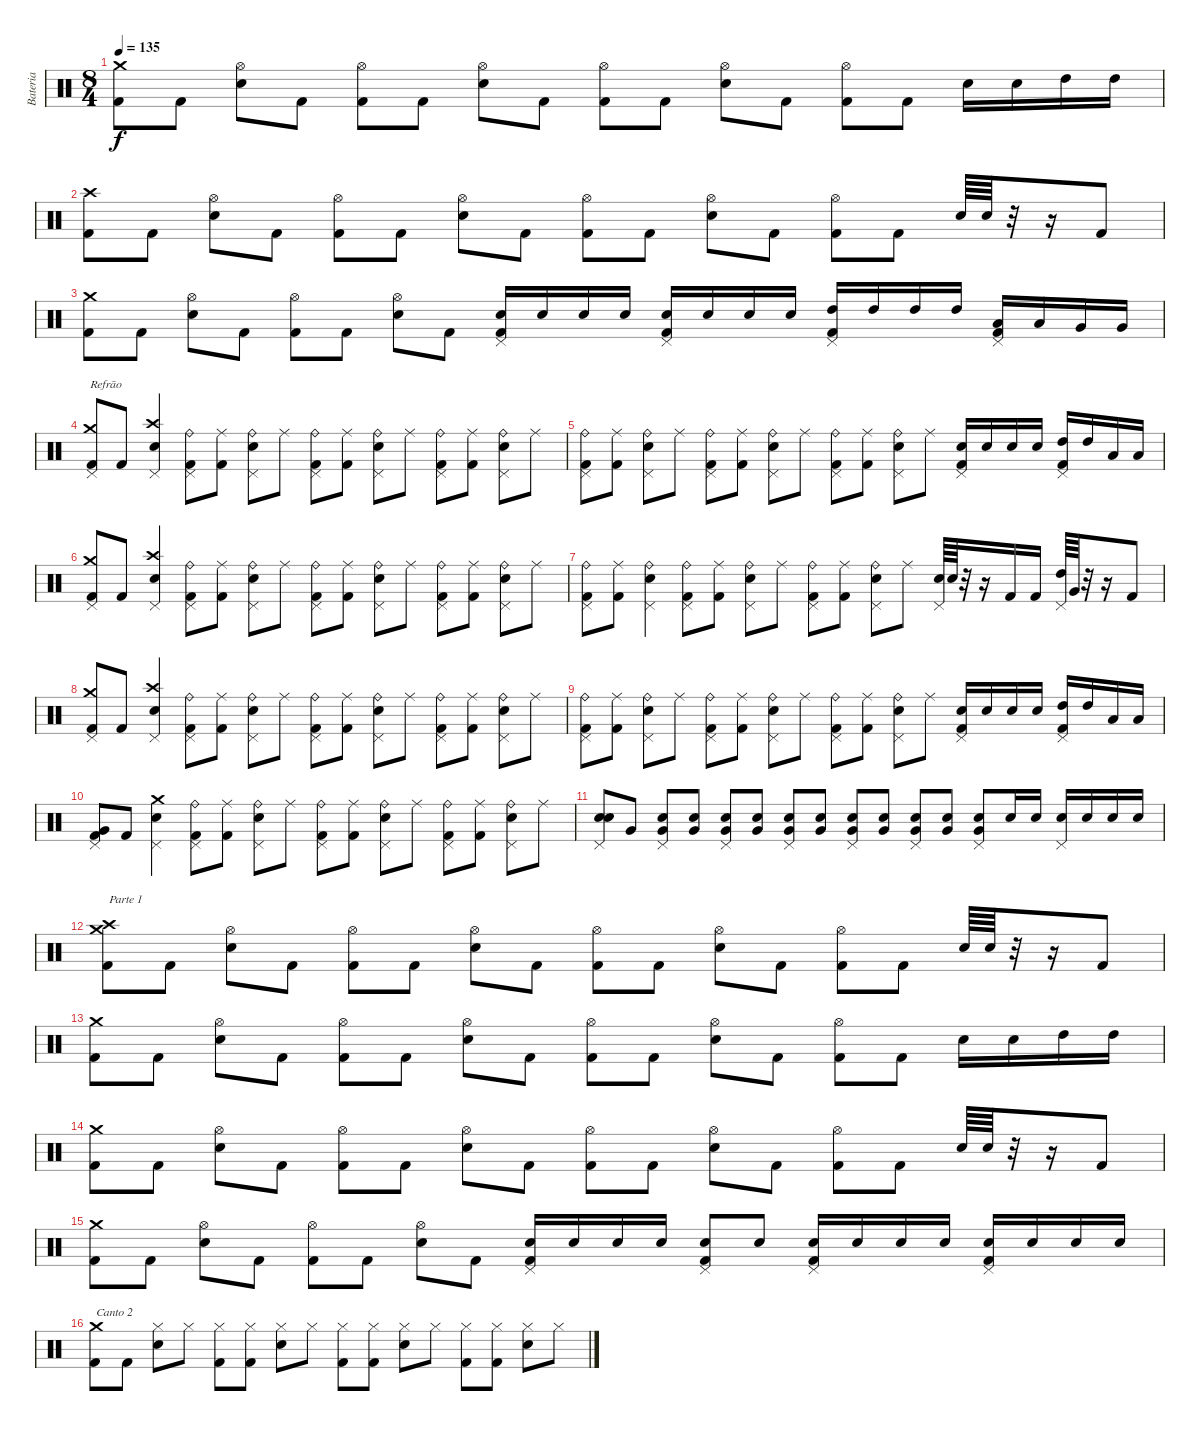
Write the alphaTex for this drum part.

\track ("Bateria" "Bateria") {instrument percussion}
\staff {score}
\articulation defaults
\ts (8 4)
\tempo 135
\clef neutral
\ks c
("Kick (hit) 2" "Crash medium (hit)").8{dy f} "Kick (hit) 2".8 ("Electric Snare (hit)" "Hi-Hat (open)").8 "Kick (hit) 2".8 ("Kick (hit) 2" "Hi-Hat (open)").8 "Kick (hit) 2".8 ("Electric Snare (hit)" "Hi-Hat (open)").8 "Kick (hit) 2".8 ("Kick (hit) 2" "Hi-Hat (open)").8 "Kick (hit) 2".8 ("Electric Snare (hit)" "Hi-Hat (open)").8 "Kick (hit) 2".8 ("Kick (hit) 2" "Hi-Hat (open)").8 "Kick (hit) 2".8 "Electric Snare (hit)".16 "Electric Snare (hit)".16 "High Tom (hit)".16 "High Tom (hit)".16 |
("Kick (hit) 2" "Crash high (hit)").8 "Kick (hit) 2".8 ("Electric Snare (hit)" "Hi-Hat (open)").8 "Kick (hit) 2".8 ("Kick (hit) 2" "Hi-Hat (open)").8 "Kick (hit) 2".8 ("Electric Snare (hit)" "Hi-Hat (open)").8 "Kick (hit) 2".8 ("Kick (hit) 2" "Hi-Hat (open)").8 "Kick (hit) 2".8 ("Electric Snare (hit)" "Hi-Hat (open)").8 "Kick (hit) 2".8 ("Kick (hit) 2" "Hi-Hat (open)").8 "Kick (hit) 2".8 "Electric Snare (hit)".64 "Electric Snare (hit)".64 r.32 r.16 "Kick (hit) 2".8 |
("Kick (hit) 2" "Crash medium (hit)").8 "Kick (hit) 2".8 ("Electric Snare (hit)" "Hi-Hat (open)").8 "Kick (hit) 2".8 ("Kick (hit) 2" "Hi-Hat (open)").8 "Kick (hit) 2".8 ("Electric Snare (hit)" "Hi-Hat (open)").8 "Kick (hit) 2".8 ("Kick (hit) 2" "Electric Snare (hit)" "Pedal Hi-Hat (hit)").16 "Electric Snare (hit)".16 "Electric Snare (hit)".16 "Electric Snare (hit)".16 ("Kick (hit) 2" "Electric Snare (hit)" "Pedal Hi-Hat (hit)").16 "Electric Snare (hit)".16 "Electric Snare (hit)".16 "Electric Snare (hit)".16 ("Kick (hit) 2" "High Tom (hit)" "Pedal Hi-Hat (hit)").16 "High Tom (hit)".16 "High Tom (hit)".16 "High Tom (hit)".16 ("Kick (hit) 2" "Low Tom (hit)" "Pedal Hi-Hat (hit)").16 "Low Tom (hit)".16 "Very Low Tom (hit)".16 "Very Low Tom (hit)".16 |
("Kick (hit) 2" "Crash medium (hit)" "Pedal Hi-Hat (hit)").8{txt "Refrão"} "Kick (hit) 2".8 ("Electric Snare (hit)" "Crash high (hit)" "Pedal Hi-Hat (hit)").4 ("Kick (hit) 2" "Ride (bell)" "Pedal Hi-Hat (hit)").8 ("Kick (hit) 2" "Ride (middle)").8 ("Electric Snare (hit)" "Ride (bell)" "Pedal Hi-Hat (hit)").8 "Ride (middle)".8 ("Kick (hit) 2" "Ride (bell)" "Pedal Hi-Hat (hit)").8 ("Kick (hit) 2" "Ride (middle)").8 ("Electric Snare (hit)" "Ride (bell)" "Pedal Hi-Hat (hit)").8 "Ride (middle)".8 ("Kick (hit) 2" "Ride (bell)" "Pedal Hi-Hat (hit)").8 ("Kick (hit) 2" "Ride (middle)").8 ("Electric Snare (hit)" "Ride (bell)" "Pedal Hi-Hat (hit)").8 "Ride (middle)".8 |
("Kick (hit) 2" "Ride (bell)" "Pedal Hi-Hat (hit)").8 ("Kick (hit) 2" "Ride (middle)").8 ("Electric Snare (hit)" "Ride (bell)" "Pedal Hi-Hat (hit)").8 "Ride (middle)".8 ("Kick (hit) 2" "Ride (bell)" "Pedal Hi-Hat (hit)").8 ("Kick (hit) 2" "Ride (middle)").8 ("Electric Snare (hit)" "Ride (bell)" "Pedal Hi-Hat (hit)").8 "Ride (middle)".8 ("Kick (hit) 2" "Ride (bell)" "Pedal Hi-Hat (hit)").8 ("Kick (hit) 2" "Ride (middle)").8 ("Electric Snare (hit)" "Ride (bell)" "Pedal Hi-Hat (hit)").8 "Ride (middle)".8 ("Kick (hit) 2" "Electric Snare (hit)" "Pedal Hi-Hat (hit)").16 "Electric Snare (hit)".16 "Electric Snare (hit)".16 "Electric Snare (hit)".16 ("Kick (hit) 2" "High Tom (hit)" "Pedal Hi-Hat (hit)").16 "High Tom (hit)".16 "Low Tom (hit)".16 "Low Tom (hit)".16 |
("Kick (hit) 2" "Crash medium (hit)" "Pedal Hi-Hat (hit)").8 "Kick (hit) 2".8 ("Electric Snare (hit)" "Crash high (hit)" "Pedal Hi-Hat (hit)").4 ("Kick (hit) 2" "Ride (bell)" "Pedal Hi-Hat (hit)").8 ("Kick (hit) 2" "Ride (middle)").8 ("Electric Snare (hit)" "Ride (bell)" "Pedal Hi-Hat (hit)").8 "Ride (middle)".8 ("Kick (hit) 2" "Ride (bell)" "Pedal Hi-Hat (hit)").8 ("Kick (hit) 2" "Ride (middle)").8 ("Electric Snare (hit)" "Ride (bell)" "Pedal Hi-Hat (hit)").8 "Ride (middle)".8 ("Kick (hit) 2" "Ride (bell)" "Pedal Hi-Hat (hit)").8 ("Kick (hit) 2" "Ride (middle)").8 ("Electric Snare (hit)" "Ride (bell)" "Pedal Hi-Hat (hit)").8 "Ride (middle)".8 |
("Kick (hit) 2" "Ride (bell)" "Pedal Hi-Hat (hit)").8 ("Kick (hit) 2" "Ride (middle)").8 ("Electric Snare (hit)" "Ride (bell)" "Pedal Hi-Hat (hit)").4 ("Kick (hit) 2" "Ride (bell)" "Pedal Hi-Hat (hit)").8 ("Kick (hit) 2" "Ride (middle)").8 ("Electric Snare (hit)" "Ride (bell)" "Pedal Hi-Hat (hit)").8 "Ride (middle)".8 ("Kick (hit) 2" "Ride (bell)" "Pedal Hi-Hat (hit)").8 ("Kick (hit) 2" "Ride (middle)").8 ("Electric Snare (hit)" "Ride (bell)" "Pedal Hi-Hat (hit)").8 "Ride (middle)".8 ("Electric Snare (hit)" "Pedal Hi-Hat (hit)").64 "Electric Snare (hit)".64 r.32 r.16 "Kick (hit) 2".16 "Kick (hit) 2".16 ("High Tom (hit)" "Pedal Hi-Hat (hit)").64 "Very Low Tom (hit)".64 r.32 r.16 "Kick (hit) 2".8 |
("Kick (hit) 2" "Crash medium (hit)" "Pedal Hi-Hat (hit)").8 "Kick (hit) 2".8 ("Electric Snare (hit)" "Crash high (hit)" "Pedal Hi-Hat (hit)").4 ("Kick (hit) 2" "Ride (bell)" "Pedal Hi-Hat (hit)").8 ("Kick (hit) 2" "Ride (middle)").8 ("Electric Snare (hit)" "Ride (bell)" "Pedal Hi-Hat (hit)").8 "Ride (middle)".8 ("Kick (hit) 2" "Ride (bell)" "Pedal Hi-Hat (hit)").8 ("Kick (hit) 2" "Ride (middle)").8 ("Electric Snare (hit)" "Ride (bell)" "Pedal Hi-Hat (hit)").8 "Ride (middle)".8 ("Kick (hit) 2" "Ride (bell)" "Pedal Hi-Hat (hit)").8 ("Kick (hit) 2" "Ride (middle)").8 ("Electric Snare (hit)" "Ride (bell)" "Pedal Hi-Hat (hit)").8 "Ride (middle)".8 |
("Kick (hit) 2" "Ride (bell)" "Pedal Hi-Hat (hit)").8 ("Kick (hit) 2" "Ride (middle)").8 ("Electric Snare (hit)" "Ride (bell)" "Pedal Hi-Hat (hit)").8 "Ride (middle)".8 ("Kick (hit) 2" "Ride (bell)" "Pedal Hi-Hat (hit)").8 ("Kick (hit) 2" "Ride (middle)").8 ("Electric Snare (hit)" "Ride (bell)" "Pedal Hi-Hat (hit)").8 "Ride (middle)".8 ("Kick (hit) 2" "Ride (bell)" "Pedal Hi-Hat (hit)").8 ("Kick (hit) 2" "Ride (middle)").8 ("Electric Snare (hit)" "Ride (bell)" "Pedal Hi-Hat (hit)").8 "Ride (middle)".8 ("Kick (hit) 2" "Electric Snare (hit)" "Pedal Hi-Hat (hit)").16 "Electric Snare (hit)".16 "Electric Snare (hit)".16 "Electric Snare (hit)".16 ("Kick (hit) 2" "High Tom (hit)" "Pedal Hi-Hat (hit)").16 "High Tom (hit)".16 "Low Tom (hit)".16 "Low Tom (hit)".16 |
("Kick (hit) 2" "Very Low Tom (hit)" "Pedal Hi-Hat (hit)").8 "Kick (hit) 2".8 ("Electric Snare (hit)" "Crash medium (hit)" "Pedal Hi-Hat (hit)").4 ("Kick (hit) 2" "Ride (bell)" "Pedal Hi-Hat (hit)").8 ("Kick (hit) 2" "Ride (middle)").8 ("Electric Snare (hit)" "Ride (bell)" "Pedal Hi-Hat (hit)").8 "Ride (middle)".8 ("Kick (hit) 2" "Ride (bell)" "Pedal Hi-Hat (hit)").8 ("Kick (hit) 2" "Ride (middle)").8 ("Electric Snare (hit)" "Ride (bell)" "Pedal Hi-Hat (hit)").8 "Ride (middle)".8 ("Kick (hit) 2" "Ride (bell)" "Pedal Hi-Hat (hit)").8 ("Kick (hit) 2" "Ride (middle)").8 ("Electric Snare (hit)" "Ride (bell)" "Pedal Hi-Hat (hit)").8 "Ride (middle)".8 |
("Electric Snare (hit)" "Electric Snare (hit)" "Pedal Hi-Hat (hit)").8 "Very Low Tom (hit)".8 ("Very Low Tom (hit)" "Electric Snare (hit)" "Pedal Hi-Hat (hit)").8 ("Very Low Tom (hit)" "Electric Snare (hit)").8 ("Very Low Tom (hit)" "Electric Snare (hit)" "Pedal Hi-Hat (hit)").8 ("Very Low Tom (hit)" "Electric Snare (hit)").8 ("Very Low Tom (hit)" "Electric Snare (hit)" "Pedal Hi-Hat (hit)").8 ("Very Low Tom (hit)" "Electric Snare (hit)").8 ("Very Low Tom (hit)" "Electric Snare (hit)" "Pedal Hi-Hat (hit)").8 ("Very Low Tom (hit)" "Electric Snare (hit)").8 ("Very Low Tom (hit)" "Electric Snare (hit)" "Pedal Hi-Hat (hit)").8 ("Very Low Tom (hit)" "Electric Snare (hit)").8 ("Very Low Tom (hit)" "Electric Snare (hit)" "Pedal Hi-Hat (hit)").8 "Electric Snare (hit)".16 "Electric Snare (hit)".16 ("Electric Snare (hit)" "Pedal Hi-Hat (hit)").16 "Electric Snare (hit)".16 "Electric Snare (hit)".16 "Electric Snare (hit)".16 |
("Kick (hit) 2" "Crash medium (hit)" "Crash high (hit)").8{txt "Parte 1"} "Kick (hit) 2".8 ("Electric Snare (hit)" "Hi-Hat (open)").8 "Kick (hit) 2".8 ("Kick (hit) 2" "Hi-Hat (open)").8 "Kick (hit) 2".8 ("Electric Snare (hit)" "Hi-Hat (open)").8 "Kick (hit) 2".8 ("Kick (hit) 2" "Hi-Hat (open)").8 "Kick (hit) 2".8 ("Electric Snare (hit)" "Hi-Hat (open)").8 "Kick (hit) 2".8 ("Kick (hit) 2" "Hi-Hat (open)").8 "Kick (hit) 2".8 "Electric Snare (hit)".64 "Electric Snare (hit)".64 r.32 r.16 "Kick (hit) 2".8 |
("Kick (hit) 2" "Crash medium (hit)").8 "Kick (hit) 2".8 ("Electric Snare (hit)" "Hi-Hat (open)").8 "Kick (hit) 2".8 ("Kick (hit) 2" "Hi-Hat (open)").8 "Kick (hit) 2".8 ("Electric Snare (hit)" "Hi-Hat (open)").8 "Kick (hit) 2".8 ("Kick (hit) 2" "Hi-Hat (open)").8 "Kick (hit) 2".8 ("Electric Snare (hit)" "Hi-Hat (open)").8 "Kick (hit) 2".8 ("Kick (hit) 2" "Hi-Hat (open)").8 "Kick (hit) 2".8 "Electric Snare (hit)".16 "Electric Snare (hit)".16 "High Tom (hit)".16 "High Tom (hit)".16 |
("Kick (hit) 2" "Crash medium (hit)").8 "Kick (hit) 2".8 ("Electric Snare (hit)" "Hi-Hat (open)").8 "Kick (hit) 2".8 ("Kick (hit) 2" "Hi-Hat (open)").8 "Kick (hit) 2".8 ("Electric Snare (hit)" "Hi-Hat (open)").8 "Kick (hit) 2".8 ("Kick (hit) 2" "Hi-Hat (open)").8 "Kick (hit) 2".8 ("Electric Snare (hit)" "Hi-Hat (open)").8 "Kick (hit) 2".8 ("Kick (hit) 2" "Hi-Hat (open)").8 "Kick (hit) 2".8 "Electric Snare (hit)".64 "Electric Snare (hit)".64 r.32 r.16 "Kick (hit) 2".8 |
("Kick (hit) 2" "Crash medium (hit)").8 "Kick (hit) 2".8 ("Electric Snare (hit)" "Hi-Hat (open)").8 "Kick (hit) 2".8 ("Kick (hit) 2" "Hi-Hat (open)").8 "Kick (hit) 2".8 ("Electric Snare (hit)" "Hi-Hat (open)").8 "Kick (hit) 2".8 ("Kick (hit) 2" "Electric Snare (hit)" "Pedal Hi-Hat (hit)").16 "Electric Snare (hit)".16 "Electric Snare (hit)".16 "Electric Snare (hit)".16 ("Kick (hit) 2" "Electric Snare (hit)" "Pedal Hi-Hat (hit)").8 "Electric Snare (hit)".8 ("Kick (hit) 2" "Electric Snare (hit)" "Pedal Hi-Hat (hit)").16 "Electric Snare (hit)".16 "Electric Snare (hit)".16 "Electric Snare (hit)".16 ("Kick (hit) 2" "Electric Snare (hit)" "Pedal Hi-Hat (hit)").16 "Electric Snare (hit)".16 "Electric Snare (hit)".16 "Electric Snare (hit)".16 |
("Kick (hit) 2" "Crash medium (hit)").8{txt "Canto 2"} "Kick (hit) 2".8 ("Electric Snare (hit)" "Hi-Hat (closed)").8 "Hi-Hat (closed)".8 ("Kick (hit) 2" "Hi-Hat (closed)").8 ("Kick (hit) 2" "Hi-Hat (closed)").8 ("Electric Snare (hit)" "Hi-Hat (closed)").8 "Hi-Hat (closed)".8 ("Kick (hit) 2" "Hi-Hat (closed)").8 ("Kick (hit) 2" "Hi-Hat (closed)").8 ("Electric Snare (hit)" "Hi-Hat (closed)").8 "Hi-Hat (closed)".8 ("Kick (hit) 2" "Hi-Hat (closed)").8 ("Kick (hit) 2" "Hi-Hat (closed)").8 ("Electric Snare (hit)" "Hi-Hat (closed)").8 "Hi-Hat (closed)".8
